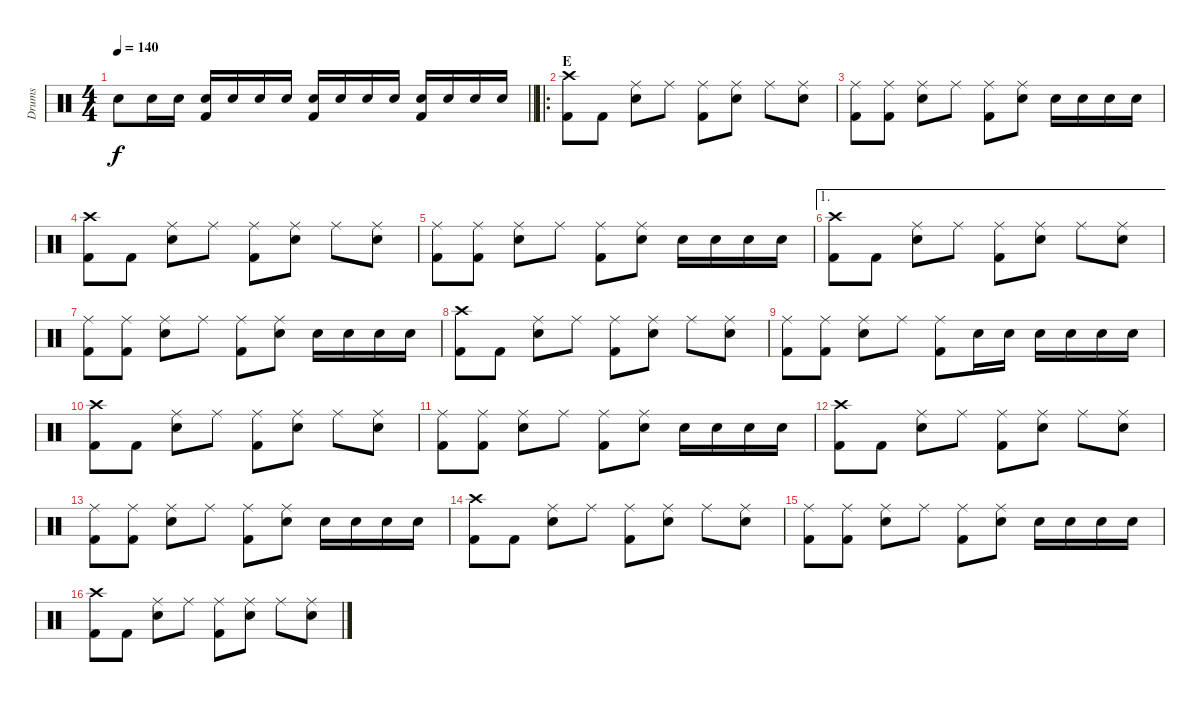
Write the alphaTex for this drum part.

\track ("Drums" "Drums") {instrument percussion}
\staff {score}
\articulation defaults
\ts (4 4)
\tempo 140
\clef neutral
\barLineRight lightlight
\ks c "Snare (hit)"{t}.8{dy f} "Snare (hit) 2".16 "Snare (hit) 2".16
("Snare (hit) 2" "Kick (hit) 2").16 "Snare (hit) 2".16 "Snare (hit) 2".16 "Snare (hit) 2".16 ("Snare (hit) 2" "Kick (hit) 2").16 "Snare (hit) 2".16 "Snare (hit) 2".16 "Snare (hit) 2".16 ("Snare (hit) 2" "Kick (hit) 2").16 "Snare (hit) 2".16 "Snare (hit) 2".16 "Snare (hit) 2".16 |
\ro
\section ("" "E")
("Crash high (hit)" "Kick (hit) 2").8 "Kick (hit) 2".8 ("Ride (middle)" "Snare (hit) 2").8 "Ride (middle)".8 ("Ride (middle)" "Kick (hit) 2").8 ("Ride (middle)" "Snare (hit) 2").8 "Ride (middle)".8 ("Ride (middle)" "Snare (hit) 2").8 |
("Ride (middle)" "Kick (hit) 2").8 ("Ride (middle)" "Kick (hit) 2").8 ("Ride (middle)" "Snare (hit) 2").8 "Ride (middle)".8 ("Ride (middle)" "Kick (hit) 2").8 ("Ride (middle)" "Snare (hit) 2").8 "Snare (hit) 2".16 "Snare (hit) 2".16 "Snare (hit) 2".16 "Snare (hit) 2".16 |
("Crash high (hit)" "Kick (hit) 2").8 "Kick (hit) 2".8 ("Ride (middle)" "Snare (hit) 2").8 "Ride (middle)".8 ("Ride (middle)" "Kick (hit) 2").8 ("Ride (middle)" "Snare (hit) 2").8 "Ride (middle)".8 ("Ride (middle)" "Snare (hit) 2").8 |
("Ride (middle)" "Kick (hit) 2").8 ("Ride (middle)" "Kick (hit) 2").8 ("Ride (middle)" "Snare (hit) 2").8 "Ride (middle)".8 ("Ride (middle)" "Kick (hit) 2").8 ("Ride (middle)" "Snare (hit) 2").8 "Snare (hit) 2".16 "Snare (hit) 2".16 "Snare (hit) 2".16 "Snare (hit) 2".16 |
\ae 1
("Crash high (hit)" "Kick (hit) 2").8 "Kick (hit) 2".8 ("Ride (middle)" "Snare (hit) 2").8 "Ride (middle)".8 ("Ride (middle)" "Kick (hit) 2").8 ("Ride (middle)" "Snare (hit) 2").8 "Ride (middle)".8 ("Ride (middle)" "Snare (hit) 2").8 |
("Ride (middle)" "Kick (hit) 2").8 ("Ride (middle)" "Kick (hit) 2").8 ("Ride (middle)" "Snare (hit) 2").8 "Ride (middle)".8 ("Ride (middle)" "Kick (hit) 2").8 ("Ride (middle)" "Snare (hit) 2").8 "Snare (hit) 2".16 "Snare (hit) 2".16 "Snare (hit) 2".16 "Snare (hit) 2".16 |
("Crash high (hit)" "Kick (hit) 2").8 "Kick (hit) 2".8 ("Ride (middle)" "Snare (hit) 2").8 "Ride (middle)".8 ("Ride (middle)" "Kick (hit) 2").8 ("Ride (middle)" "Snare (hit) 2").8 "Ride (middle)".8 ("Ride (middle)" "Snare (hit) 2").8 |
("Ride (middle)" "Kick (hit) 2").8 ("Ride (middle)" "Kick (hit) 2").8 ("Ride (middle)" "Snare (hit) 2").8 "Ride (middle)".8 ("Ride (middle)" "Kick (hit) 2").8 "Snare (hit) 2".16 "Snare (hit) 2".16 "Snare (hit) 2".16 "Snare (hit) 2".16 "Snare (hit) 2".16 "Snare (hit) 2".16 |
("Crash high (hit)" "Kick (hit) 2").8 "Kick (hit) 2".8 ("Ride (middle)" "Snare (hit) 2").8 "Ride (middle)".8 ("Ride (middle)" "Kick (hit) 2").8 ("Ride (middle)" "Snare (hit) 2").8 "Ride (middle)".8 ("Ride (middle)" "Snare (hit) 2").8 |
("Ride (middle)" "Kick (hit) 2").8 ("Ride (middle)" "Kick (hit) 2").8 ("Ride (middle)" "Snare (hit) 2").8 "Ride (middle)".8 ("Ride (middle)" "Kick (hit) 2").8 ("Ride (middle)" "Snare (hit) 2").8 "Snare (hit) 2".16 "Snare (hit) 2".16 "Snare (hit) 2".16 "Snare (hit) 2".16 |
("Crash high (hit)" "Kick (hit) 2").8 "Kick (hit) 2".8 ("Ride (middle)" "Snare (hit) 2").8 "Ride (middle)".8 ("Ride (middle)" "Kick (hit) 2").8 ("Ride (middle)" "Snare (hit) 2").8 "Ride (middle)".8 ("Ride (middle)" "Snare (hit) 2").8 |
("Ride (middle)" "Kick (hit) 2").8 ("Ride (middle)" "Kick (hit) 2").8 ("Ride (middle)" "Snare (hit) 2").8 "Ride (middle)".8 ("Ride (middle)" "Kick (hit) 2").8 ("Ride (middle)" "Snare (hit) 2").8 "Snare (hit) 2".16 "Snare (hit) 2".16 "Snare (hit) 2".16 "Snare (hit) 2".16 |
("Crash high (hit)" "Kick (hit) 2").8 "Kick (hit) 2".8 ("Ride (middle)" "Snare (hit) 2").8 "Ride (middle)".8 ("Ride (middle)" "Kick (hit) 2").8 ("Ride (middle)" "Snare (hit) 2").8 "Ride (middle)".8 ("Ride (middle)" "Snare (hit) 2").8 |
("Ride (middle)" "Kick (hit) 2").8 ("Ride (middle)" "Kick (hit) 2").8 ("Ride (middle)" "Snare (hit) 2").8 "Ride (middle)".8 ("Ride (middle)" "Kick (hit) 2").8 ("Ride (middle)" "Snare (hit) 2").8 "Snare (hit) 2".16 "Snare (hit) 2".16 "Snare (hit) 2".16 "Snare (hit) 2".16 |
("Crash high (hit)" "Kick (hit) 2").8 "Kick (hit) 2".8 ("Ride (middle)" "Snare (hit) 2").8 "Ride (middle)".8 ("Ride (middle)" "Kick (hit) 2").8 ("Ride (middle)" "Snare (hit) 2").8 "Ride (middle)".8 ("Ride (middle)" "Snare (hit) 2").8
